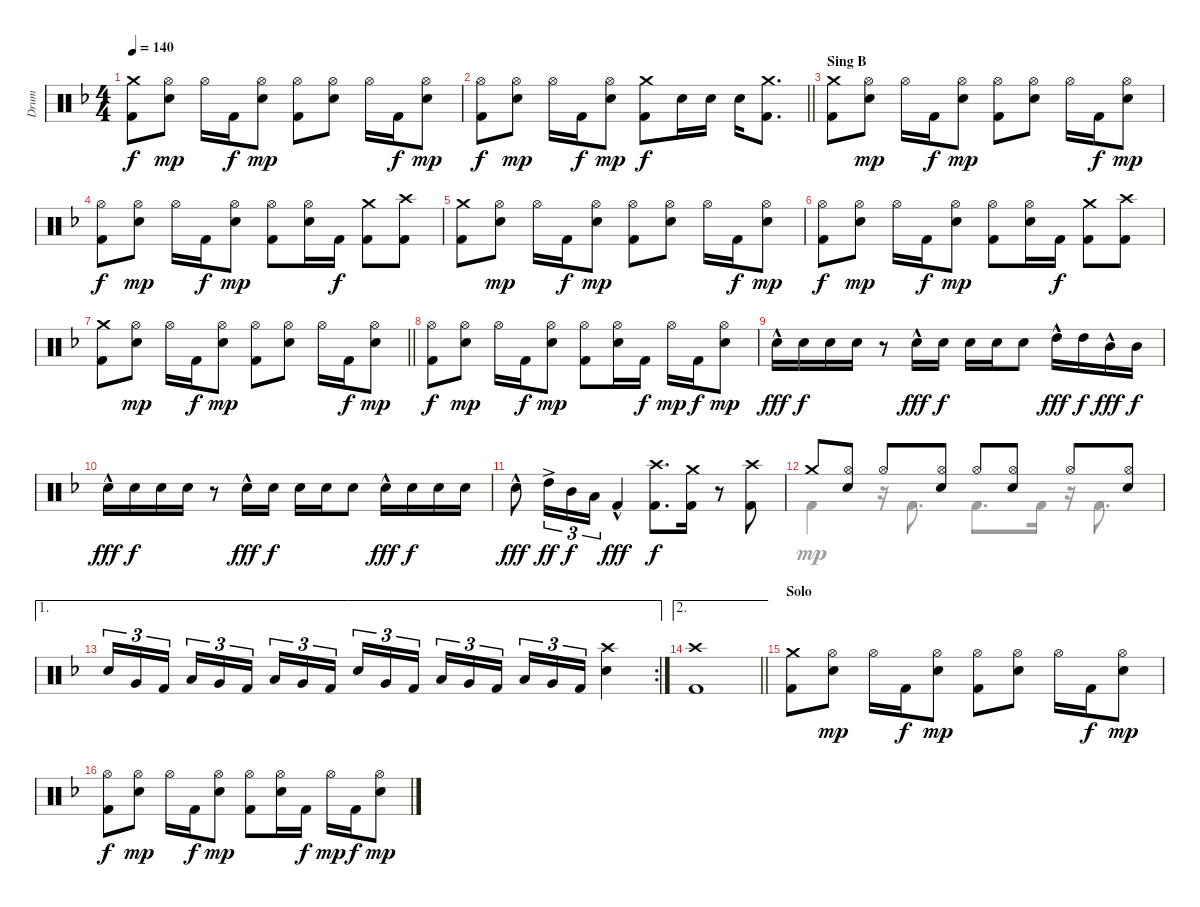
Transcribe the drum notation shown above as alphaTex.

\track ("Drum" "Drum") {instrument percussion}
\staff {score}
\articulation defaults
\voice
\ts (4 4)
\tempo 140
\clef neutral
\ks dminor
("Crash medium (hit)" "Kick (hit) 2").8{dy f} ("Hi-Hat (open)" "Snare (hit) 2").8{dy mp} "Hi-Hat (open)".16 "Kick (hit) 2".16{dy f} ("Hi-Hat (open)" "Snare (hit) 2").8{dy mp} ("Hi-Hat (open)" "Kick (hit) 2").8 ("Hi-Hat (open)" "Snare (hit) 2").8 "Hi-Hat (open)".16 "Kick (hit) 2".16{dy f} ("Hi-Hat (open)" "Snare (hit) 2").8{dy mp} |
\barLineRight lightlight
("Hi-Hat (open)" "Kick (hit) 2").8{dy f} ("Hi-Hat (open)" "Snare (hit) 2").8{dy mp} "Hi-Hat (open)".16 "Kick (hit) 2".16{dy f} ("Hi-Hat (open)" "Snare (hit) 2").8{dy mp} ("Crash medium (hit)" "Kick (hit) 2").8{dy f} "Snare (hit) 2".16 "Snare (hit) 2".16 "Snare (hit) 2".16 ("Crash medium (hit)" "Kick (hit) 2").8{d} |
\section ("" "Sing B")
("Crash medium (hit)" "Kick (hit) 2").8 ("Hi-Hat (open)" "Snare (hit) 2").8{dy mp} "Hi-Hat (open)".16 "Kick (hit) 2".16{dy f} ("Hi-Hat (open)" "Snare (hit) 2").8{dy mp} ("Hi-Hat (open)" "Kick (hit) 2").8 ("Hi-Hat (open)" "Snare (hit) 2").8 "Hi-Hat (open)".16 "Kick (hit) 2".16{dy f} ("Hi-Hat (open)" "Snare (hit) 2").8{dy mp} |
("Hi-Hat (open)" "Kick (hit) 2").8{dy f} ("Hi-Hat (open)" "Snare (hit) 2").8{dy mp} "Hi-Hat (open)".16 "Kick (hit) 2".16{dy f} ("Hi-Hat (open)" "Snare (hit) 2").8{dy mp} ("Hi-Hat (open)" "Kick (hit) 2").8 ("Hi-Hat (open)" "Snare (hit) 2").16 "Kick (hit) 2".16{dy f} ("Crash medium (hit)" "Kick (hit) 2").8 ("Crash high (hit)" "Kick (hit) 2").8 |
("Crash medium (hit)" "Kick (hit) 2").8 ("Hi-Hat (open)" "Snare (hit) 2").8{dy mp} "Hi-Hat (open)".16 "Kick (hit) 2".16{dy f} ("Hi-Hat (open)" "Snare (hit) 2").8{dy mp} ("Hi-Hat (open)" "Kick (hit) 2").8 ("Hi-Hat (open)" "Snare (hit) 2").8 "Hi-Hat (open)".16 "Kick (hit) 2".16{dy f} ("Hi-Hat (open)" "Snare (hit) 2").8{dy mp} |
("Hi-Hat (open)" "Kick (hit) 2").8{dy f} ("Hi-Hat (open)" "Snare (hit) 2").8{dy mp} "Hi-Hat (open)".16 "Kick (hit) 2".16{dy f} ("Hi-Hat (open)" "Snare (hit) 2").8{dy mp} ("Hi-Hat (open)" "Kick (hit) 2").8 ("Hi-Hat (open)" "Snare (hit) 2").16 "Kick (hit) 2".16{dy f} ("Crash medium (hit)" "Kick (hit) 2").8 ("Crash high (hit)" "Kick (hit) 2").8 |
\barLineRight lightlight
("Crash medium (hit)" "Kick (hit) 2").8 ("Hi-Hat (open)" "Snare (hit) 2").8{dy mp} "Hi-Hat (open)".16 "Kick (hit) 2".16{dy f} ("Hi-Hat (open)" "Snare (hit) 2").8{dy mp} ("Hi-Hat (open)" "Kick (hit) 2").8 ("Hi-Hat (open)" "Snare (hit) 2").8 "Hi-Hat (open)".16 "Kick (hit) 2".16{dy f} ("Hi-Hat (open)" "Snare (hit) 2").8{dy mp} |
("Hi-Hat (open)" "Kick (hit) 2").8{dy f} ("Hi-Hat (open)" "Snare (hit) 2").8{dy mp} "Hi-Hat (open)".16 "Kick (hit) 2".16{dy f} ("Hi-Hat (open)" "Snare (hit) 2").8{dy mp} ("Hi-Hat (open)" "Kick (hit) 2").8 ("Hi-Hat (open)" "Snare (hit) 2").16 "Kick (hit) 2".16{dy f} "Hi-Hat (open)".16{dy mp} "Kick (hit) 2".16{dy f} ("Hi-Hat (open)" "Snare (hit) 2").8{dy mp} |
"Snare (hit) 2"{hac}.16{dy fff} "Snare (hit) 2".16{dy f} "Snare (hit) 2".16 "Snare (hit) 2".16 r.8 "Snare (hit) 2"{hac}.16{dy fff} "Snare (hit) 2".16{dy f} "Snare (hit) 2".16 "Snare (hit) 2".16 "Snare (hit) 2".8 "High Tom (hit)"{hac}.16{dy fff} "High Tom (hit)".16{dy f} "Mid Tom (hit)"{hac}.16{dy fff} "Mid Tom (hit)".16{dy f} |
"Snare (hit) 2"{hac}.16{dy fff} "Snare (hit) 2".16{dy f} "Snare (hit) 2".16 "Snare (hit) 2".16 r.8 "Snare (hit) 2"{hac}.16{dy fff} "Snare (hit) 2".16{dy f} "Snare (hit) 2".16 "Snare (hit) 2".16 "Snare (hit) 2".8 "Snare (hit) 2"{hac}.16{dy fff} "Snare (hit) 2".16{dy f} "Snare (hit) 2".16 "Snare (hit) 2".16 |
"Snare (hit) 2"{hac}.8{dy fff} "High Tom (hit)"{ac}.16{tu (3 2) dy ff} "Mid Tom (hit)".16{tu (3 2) dy f} "Low Tom (hit)".16{tu (3 2)} "Kick (hit) 2"{hac}.4{dy fff} ("Crash high (hit)" "Kick (hit) 2").8{d dy f} ("Crash medium (hit)" "Kick (hit) 2").16 r.8 ("Crash high (hit)" "Kick (hit) 2").8 |
"Crash medium (hit)".8 ("Hi-Hat (open)" "Snare (hit) 2").8 "Hi-Hat (open)".8 ("Hi-Hat (open)" "Snare (hit) 2").8 "Hi-Hat (open)".8 ("Hi-Hat (open)" "Snare (hit) 2").8 "Hi-Hat (open)".8 ("Hi-Hat (open)" "Snare (hit) 2").8 |
\ae 1
\rc 2 "Electric Snare (hit)".16{tu (3 2)} "Very Low Tom (hit)".16{tu (3 2)} "Kick (hit) 2".16{tu (3 2) beam splitsecondary} "Low Tom (hit)".16{tu (3 2)} "Very Low Tom (hit)".16{tu (3 2)} "Kick (hit) 2".16{tu (3 2)} "Low Tom (hit)".16{tu (3 2)} "Very Low Tom (hit)".16{tu (3 2)} "Kick (hit) 2".16{tu (3 2) beam splitsecondary} "Electric Snare (hit)".16{tu (3 2)} "Very Low Tom (hit)".16{tu (3 2)} "Kick (hit) 2".16{tu (3 2)} "Low Tom (hit)".16{tu (3 2)} "Very Low Tom (hit)".16{tu (3 2)} "Kick (hit) 2".16{tu (3 2) beam splitsecondary} "Low Tom (hit)".16{tu (3 2)} "Very Low Tom (hit)".16{tu (3 2)} "Kick (hit) 2".16{tu (3 2)}
("Crash high (hit)" "Snare (hit) 2").4 |
\ae 2
\barLineRight lightlight
("Crash high (hit)" "Kick (hit) 2").1 |
\section ("" "Solo")
("Crash medium (hit)" "Kick (hit) 2").8 ("Hi-Hat (open)" "Snare (hit) 2").8{dy mp} "Hi-Hat (open)".16 "Kick (hit) 2".16{dy f} ("Hi-Hat (open)" "Snare (hit) 2").8{dy mp} ("Hi-Hat (open)" "Kick (hit) 2").8 ("Hi-Hat (open)" "Snare (hit) 2").8 "Hi-Hat (open)".16 "Kick (hit) 2".16{dy f} ("Hi-Hat (open)" "Snare (hit) 2").8{dy mp} |
("Hi-Hat (open)" "Kick (hit) 2").8{dy f} ("Hi-Hat (open)" "Snare (hit) 2").8{dy mp} "Hi-Hat (open)".16 "Kick (hit) 2".16{dy f} ("Hi-Hat (open)" "Snare (hit) 2").8{dy mp} ("Hi-Hat (open)" "Kick (hit) 2").8 ("Hi-Hat (open)" "Snare (hit) 2").16 "Kick (hit) 2".16{dy f} "Hi-Hat (open)".16{dy mp} "Kick (hit) 2".16{dy f} ("Hi-Hat (open)" "Snare (hit) 2").8{dy mp}
\voice
\clef neutral
\ottava regular
\simile none
\ks dminor
|
\barLineRight lightlight
|
|
|
|
|
\barLineRight lightlight
|
|
|
|
|
"Kick (hit) 2".4 r.16 "Kick (hit) 2".8{d} "Kick (hit) 2".8{d} "Kick (hit) 2".16 r.16 "Kick (hit) 2".8{d} |
|
\barLineRight lightlight
|
|
